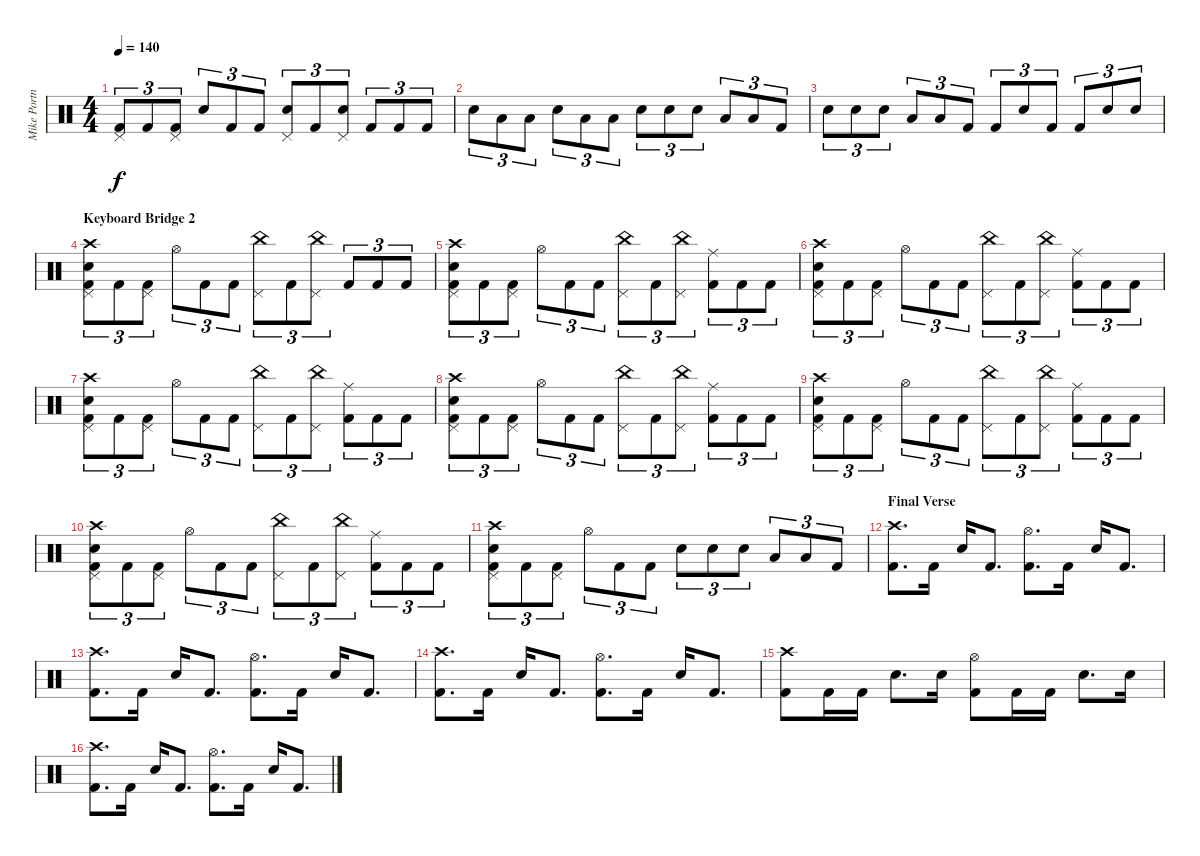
\track ("Mike Portnoy Drums/Percussion" "Mike Portn") {instrument percussion}
\staff {score}
\articulation defaults
\ts (4 4)
\tempo 140
\clef neutral
\ks c
("Kick (hit) 2" "Pedal Hi-Hat (hit)").8{tu (3 2) dy f} "Kick (hit) 2".8{tu (3 2)} ("Kick (hit) 2" "Pedal Hi-Hat (hit)").8{tu (3 2)} "Snare (hit) 2".8{tu (3 2)} "Kick (hit) 2".8{tu (3 2)} "Kick (hit) 2".8{tu (3 2)} ("Snare (hit) 2" "Pedal Hi-Hat (hit)").8{tu (3 2)} "Kick (hit) 2".8{tu (3 2)} ("Snare (hit) 2" "Pedal Hi-Hat (hit)").8{tu (3 2)} "Kick (hit) 2".8{tu (3 2)} "Kick (hit) 2".8{tu (3 2)} "Kick (hit) 2".8{tu (3 2)} |
"Snare (hit) 2".8{tu (3 2)} "Low Tom (hit)".8{tu (3 2)} "Low Floor Tom (hit)".8{tu (3 2)} "Snare (hit) 2".8{tu (3 2)} "Low Tom (hit)".8{tu (3 2)} "Low Floor Tom (hit)".8{tu (3 2)} "Snare (hit) 2".8{tu (3 2)} "Snare (hit) 2".8{tu (3 2)} "Snare (hit) 2".8{tu (3 2)} "Low Tom (hit)".8{tu (3 2)} "Low Floor Tom (hit)".8{tu (3 2)} "Kick (hit) 2".8{tu (3 2)} |
"Snare (hit) 2".8{tu (3 2)} "Snare (hit) 2".8{tu (3 2)} "Snare (hit) 2".8{tu (3 2)} "Low Tom (hit)".8{tu (3 2)} "Low Floor Tom (hit)".8{tu (3 2)} "Kick (hit) 2".8{tu (3 2)} "Kick (hit) 2".8{tu (3 2)} "Snare (hit) 2".8{tu (3 2)} "Kick (hit) 2".8{tu (3 2)} "Kick (hit) 2".8{tu (3 2)} "Snare (hit) 2".8{tu (3 2)} "Snare (hit) 2".8{tu (3 2)} |
\section ("" "Keyboard Bridge 2")
("Crash high (hit)" "Kick (hit) 2" "Pedal Hi-Hat (hit)" "Snare (hit) 2").8{tu (3 2)} "Kick (hit) 2".8{tu (3 2)} ("Kick (hit) 2" "Pedal Hi-Hat (hit)").8{tu (3 2)} "Hi-Hat (open)".8{tu (3 2)} "Kick (hit) 2".8{tu (3 2)} "Kick (hit) 2".8{tu (3 2)} ("China (hit)" "Pedal Hi-Hat (hit)").8{tu (3 2)} "Kick (hit) 2".8{tu (3 2)} ("China (hit)" "Pedal Hi-Hat (hit)").8{tu (3 2)} "Kick (hit) 2".8{tu (3 2)} "Kick (hit) 2".8{tu (3 2)} "Kick (hit) 2".8{tu (3 2)} |
("Crash high (hit)" "Kick (hit) 2" "Pedal Hi-Hat (hit)" "Snare (hit) 2").8{tu (3 2)} "Kick (hit) 2".8{tu (3 2)} ("Kick (hit) 2" "Pedal Hi-Hat (hit)").8{tu (3 2)} "Hi-Hat (open)".8{tu (3 2)} "Kick (hit) 2".8{tu (3 2)} "Kick (hit) 2".8{tu (3 2)} ("China (hit)" "Pedal Hi-Hat (hit)").8{tu (3 2)} "Kick (hit) 2".8{tu (3 2)} ("China (hit)" "Pedal Hi-Hat (hit)").8{tu (3 2)} ("Ride (middle)" "Kick (hit) 2").8{tu (3 2)} "Kick (hit) 2".8{tu (3 2)} "Kick (hit) 2".8{tu (3 2)} |
("Crash high (hit)" "Kick (hit) 2" "Pedal Hi-Hat (hit)" "Snare (hit) 2").8{tu (3 2)} "Kick (hit) 2".8{tu (3 2)} ("Kick (hit) 2" "Pedal Hi-Hat (hit)").8{tu (3 2)} "Hi-Hat (open)".8{tu (3 2)} "Kick (hit) 2".8{tu (3 2)} "Kick (hit) 2".8{tu (3 2)} ("China (hit)" "Pedal Hi-Hat (hit)").8{tu (3 2)} "Kick (hit) 2".8{tu (3 2)} ("China (hit)" "Pedal Hi-Hat (hit)").8{tu (3 2)} ("Ride (middle)" "Kick (hit) 2").8{tu (3 2)} "Kick (hit) 2".8{tu (3 2)} "Kick (hit) 2".8{tu (3 2)} |
("Crash high (hit)" "Kick (hit) 2" "Pedal Hi-Hat (hit)" "Snare (hit) 2").8{tu (3 2)} "Kick (hit) 2".8{tu (3 2)} ("Kick (hit) 2" "Pedal Hi-Hat (hit)").8{tu (3 2)} "Hi-Hat (open)".8{tu (3 2)} "Kick (hit) 2".8{tu (3 2)} "Kick (hit) 2".8{tu (3 2)} ("China (hit)" "Pedal Hi-Hat (hit)").8{tu (3 2)} "Kick (hit) 2".8{tu (3 2)} ("China (hit)" "Pedal Hi-Hat (hit)").8{tu (3 2)} ("Ride (middle)" "Kick (hit) 2").8{tu (3 2)} "Kick (hit) 2".8{tu (3 2)} "Kick (hit) 2".8{tu (3 2)} |
("Crash high (hit)" "Kick (hit) 2" "Pedal Hi-Hat (hit)" "Snare (hit) 2").8{tu (3 2)} "Kick (hit) 2".8{tu (3 2)} ("Kick (hit) 2" "Pedal Hi-Hat (hit)").8{tu (3 2)} "Hi-Hat (open)".8{tu (3 2)} "Kick (hit) 2".8{tu (3 2)} "Kick (hit) 2".8{tu (3 2)} ("China (hit)" "Pedal Hi-Hat (hit)").8{tu (3 2)} "Kick (hit) 2".8{tu (3 2)} ("China (hit)" "Pedal Hi-Hat (hit)").8{tu (3 2)} ("Ride (middle)" "Kick (hit) 2").8{tu (3 2)} "Kick (hit) 2".8{tu (3 2)} "Kick (hit) 2".8{tu (3 2)} |
("Crash high (hit)" "Kick (hit) 2" "Pedal Hi-Hat (hit)" "Snare (hit) 2").8{tu (3 2)} "Kick (hit) 2".8{tu (3 2)} ("Kick (hit) 2" "Pedal Hi-Hat (hit)").8{tu (3 2)} "Hi-Hat (open)".8{tu (3 2)} "Kick (hit) 2".8{tu (3 2)} "Kick (hit) 2".8{tu (3 2)} ("China (hit)" "Pedal Hi-Hat (hit)").8{tu (3 2)} "Kick (hit) 2".8{tu (3 2)} ("China (hit)" "Pedal Hi-Hat (hit)").8{tu (3 2)} ("Ride (middle)" "Kick (hit) 2").8{tu (3 2)} "Kick (hit) 2".8{tu (3 2)} "Kick (hit) 2".8{tu (3 2)} |
("Crash high (hit)" "Kick (hit) 2" "Pedal Hi-Hat (hit)" "Snare (hit) 2").8{tu (3 2)} "Kick (hit) 2".8{tu (3 2)} ("Kick (hit) 2" "Pedal Hi-Hat (hit)").8{tu (3 2)} "Hi-Hat (open)".8{tu (3 2)} "Kick (hit) 2".8{tu (3 2)} "Kick (hit) 2".8{tu (3 2)} ("China (hit)" "Pedal Hi-Hat (hit)").8{tu (3 2)} "Kick (hit) 2".8{tu (3 2)} ("China (hit)" "Pedal Hi-Hat (hit)").8{tu (3 2)} ("Ride (middle)" "Kick (hit) 2").8{tu (3 2)} "Kick (hit) 2".8{tu (3 2)} "Kick (hit) 2".8{tu (3 2)} |
("Crash high (hit)" "Kick (hit) 2" "Pedal Hi-Hat (hit)" "Snare (hit) 2").8{tu (3 2)} "Kick (hit) 2".8{tu (3 2)} ("Kick (hit) 2" "Pedal Hi-Hat (hit)").8{tu (3 2)} "Hi-Hat (open)".8{tu (3 2)} "Kick (hit) 2".8{tu (3 2)} "Kick (hit) 2".8{tu (3 2)} "Snare (hit) 2".8{tu (3 2)} "Snare (hit) 2".8{tu (3 2)} "Snare (hit) 2".8{tu (3 2)} "Low Tom (hit)".8{tu (3 2)} "Low Floor Tom (hit)".8{tu (3 2)} "Kick (hit) 2".8{tu (3 2)} |
\section ("" "Final Verse")
("Crash high (hit)" "Kick (hit) 2").8{d} "Kick (hit) 2".16 "Snare (hit) 2".16 "Kick (hit) 2".8{d} ("Hi-Hat (open)" "Kick (hit) 2").8{d} "Kick (hit) 2".16 "Snare (hit) 2".16 "Kick (hit) 2".8{d} |
("Crash high (hit)" "Kick (hit) 2").8{d} "Kick (hit) 2".16 "Snare (hit) 2".16 "Kick (hit) 2".8{d} ("Hi-Hat (open)" "Kick (hit) 2").8{d} "Kick (hit) 2".16 "Snare (hit) 2".16 "Kick (hit) 2".8{d} |
("Crash high (hit)" "Kick (hit) 2").8{d} "Kick (hit) 2".16 "Snare (hit) 2".16 "Kick (hit) 2".8{d} ("Hi-Hat (open)" "Kick (hit) 2").8{d} "Kick (hit) 2".16 "Snare (hit) 2".16 "Kick (hit) 2".8{d} |
("Crash high (hit)" "Kick (hit) 2").8 "Kick (hit) 2".16 "Kick (hit) 2".16 "Snare (hit) 2".8{d} "Snare (hit) 2".16 ("Hi-Hat (open)" "Kick (hit) 2").8 "Kick (hit) 2".16 "Kick (hit) 2".16 "Snare (hit) 2".8{d} "Snare (hit) 2".16 |
("Crash high (hit)" "Kick (hit) 2").8{d} "Kick (hit) 2".16 "Snare (hit) 2".16 "Kick (hit) 2".8{d} ("Hi-Hat (open)" "Kick (hit) 2").8{d} "Kick (hit) 2".16 "Snare (hit) 2".16 "Kick (hit) 2".8{d}
